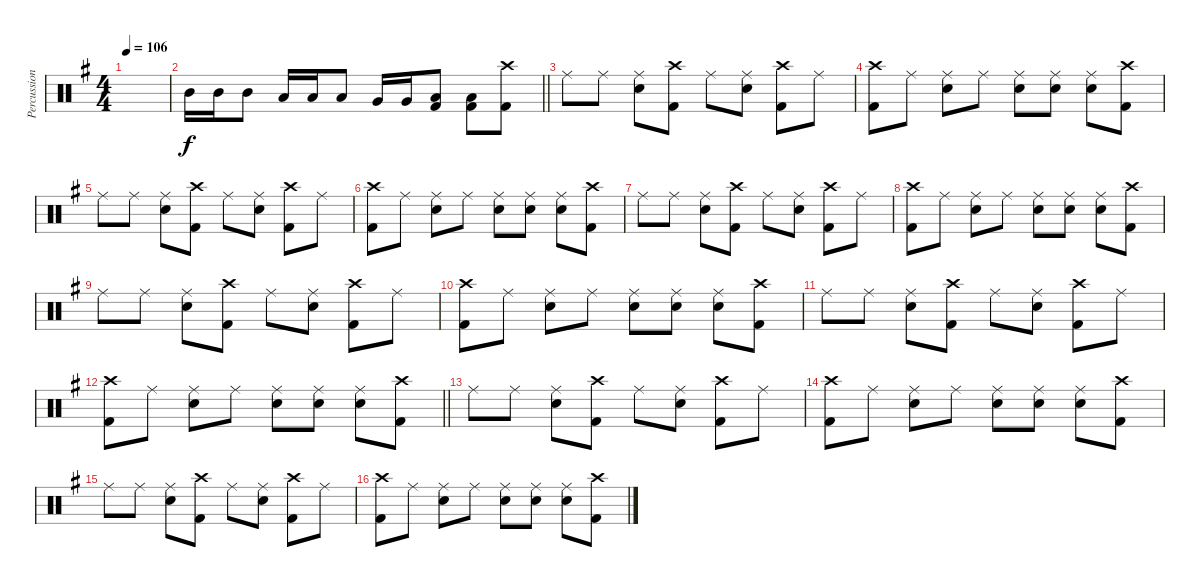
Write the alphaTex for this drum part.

\track ("Percussion" "Percussion") {instrument percussion}
\staff {score}
\articulation defaults
\ts (4 4)
\tempo 106
\clef neutral
\ks g
|
\barLineRight lightlight "Mid Tom (hit)".16 "Mid Tom (hit)".16 "Mid Tom (hit)".8 "Low Tom (hit)".16 "Low Tom (hit)".16 "Low Tom (hit)".8 "Very Low Tom (hit)".16 "Very Low Tom (hit)".16
("Low Floor Tom (hit)" "Kick (hit) 2").8 ("Low Floor Tom (hit)" "Kick (hit) 2").8 ("Crash high (hit)" "Kick (hit) 2").8 |
"Ride (middle)".8 "Ride (middle)".8 ("Ride (middle)" "Snare (hit) 2").8 ("Crash high (hit)" "Kick (hit) 2").8 "Ride (middle)".8 ("Ride (middle)" "Snare (hit) 2").8 ("Crash high (hit)" "Kick (hit) 2").8 "Ride (middle)".8 |
("Crash high (hit)" "Kick (hit) 2").8 "Ride (middle)".8 ("Ride (middle)" "Snare (hit) 2").8 "Ride (middle)".8 ("Ride (middle)" "Snare (hit) 2").8 ("Ride (middle)" "Snare (hit) 2").8 ("Ride (middle)" "Snare (hit) 2").8 ("Crash high (hit)" "Kick (hit) 2").8 |
"Ride (middle)".8 "Ride (middle)".8 ("Ride (middle)" "Snare (hit) 2").8 ("Crash high (hit)" "Kick (hit) 2").8 "Ride (middle)".8 ("Ride (middle)" "Snare (hit) 2").8 ("Crash high (hit)" "Kick (hit) 2").8 "Ride (middle)".8 |
("Crash high (hit)" "Kick (hit) 2").8 "Ride (middle)".8 ("Ride (middle)" "Snare (hit) 2").8 "Ride (middle)".8 ("Ride (middle)" "Snare (hit) 2").8 ("Ride (middle)" "Snare (hit) 2").8 ("Ride (middle)" "Snare (hit) 2").8 ("Crash high (hit)" "Kick (hit) 2").8 |
"Ride (middle)".8 "Ride (middle)".8 ("Ride (middle)" "Snare (hit) 2").8 ("Crash high (hit)" "Kick (hit) 2").8 "Ride (middle)".8 ("Ride (middle)" "Snare (hit) 2").8 ("Crash high (hit)" "Kick (hit) 2").8 "Ride (middle)".8 |
("Crash high (hit)" "Kick (hit) 2").8 "Ride (middle)".8 ("Ride (middle)" "Snare (hit) 2").8 "Ride (middle)".8 ("Ride (middle)" "Snare (hit) 2").8 ("Ride (middle)" "Snare (hit) 2").8 ("Ride (middle)" "Snare (hit) 2").8 ("Crash high (hit)" "Kick (hit) 2").8 |
"Ride (middle)".8 "Ride (middle)".8 ("Ride (middle)" "Snare (hit) 2").8 ("Crash high (hit)" "Kick (hit) 2").8 "Ride (middle)".8 ("Ride (middle)" "Snare (hit) 2").8 ("Crash high (hit)" "Kick (hit) 2").8 "Ride (middle)".8 |
("Crash high (hit)" "Kick (hit) 2").8 "Ride (middle)".8 ("Ride (middle)" "Snare (hit) 2").8 "Ride (middle)".8 ("Ride (middle)" "Snare (hit) 2").8 ("Ride (middle)" "Snare (hit) 2").8 ("Ride (middle)" "Snare (hit) 2").8 ("Crash high (hit)" "Kick (hit) 2").8 |
"Ride (middle)".8 "Ride (middle)".8 ("Ride (middle)" "Snare (hit) 2").8 ("Crash high (hit)" "Kick (hit) 2").8 "Ride (middle)".8 ("Ride (middle)" "Snare (hit) 2").8 ("Crash high (hit)" "Kick (hit) 2").8 "Ride (middle)".8 |
\barLineRight lightlight
("Crash high (hit)" "Kick (hit) 2").8 "Ride (middle)".8 ("Ride (middle)" "Snare (hit) 2").8 "Ride (middle)".8 ("Ride (middle)" "Snare (hit) 2").8 ("Ride (middle)" "Snare (hit) 2").8 ("Ride (middle)" "Snare (hit) 2").8 ("Crash high (hit)" "Kick (hit) 2").8 |
"Ride (middle)".8 "Ride (middle)".8 ("Ride (middle)" "Snare (hit) 2").8 ("Crash high (hit)" "Kick (hit) 2").8 "Ride (middle)".8 ("Ride (middle)" "Snare (hit) 2").8 ("Crash high (hit)" "Kick (hit) 2").8 "Ride (middle)".8 |
("Crash high (hit)" "Kick (hit) 2").8 "Ride (middle)".8 ("Ride (middle)" "Snare (hit) 2").8 "Ride (middle)".8 ("Ride (middle)" "Snare (hit) 2").8 ("Ride (middle)" "Snare (hit) 2").8 ("Ride (middle)" "Snare (hit) 2").8 ("Crash high (hit)" "Kick (hit) 2").8 |
"Ride (middle)".8 "Ride (middle)".8 ("Ride (middle)" "Snare (hit) 2").8 ("Crash high (hit)" "Kick (hit) 2").8 "Ride (middle)".8 ("Ride (middle)" "Snare (hit) 2").8 ("Crash high (hit)" "Kick (hit) 2").8 "Ride (middle)".8 |
("Crash high (hit)" "Kick (hit) 2").8 "Ride (middle)".8 ("Ride (middle)" "Snare (hit) 2").8 "Ride (middle)".8 ("Ride (middle)" "Snare (hit) 2").8 ("Ride (middle)" "Snare (hit) 2").8 ("Ride (middle)" "Snare (hit) 2").8 ("Crash high (hit)" "Kick (hit) 2").8
